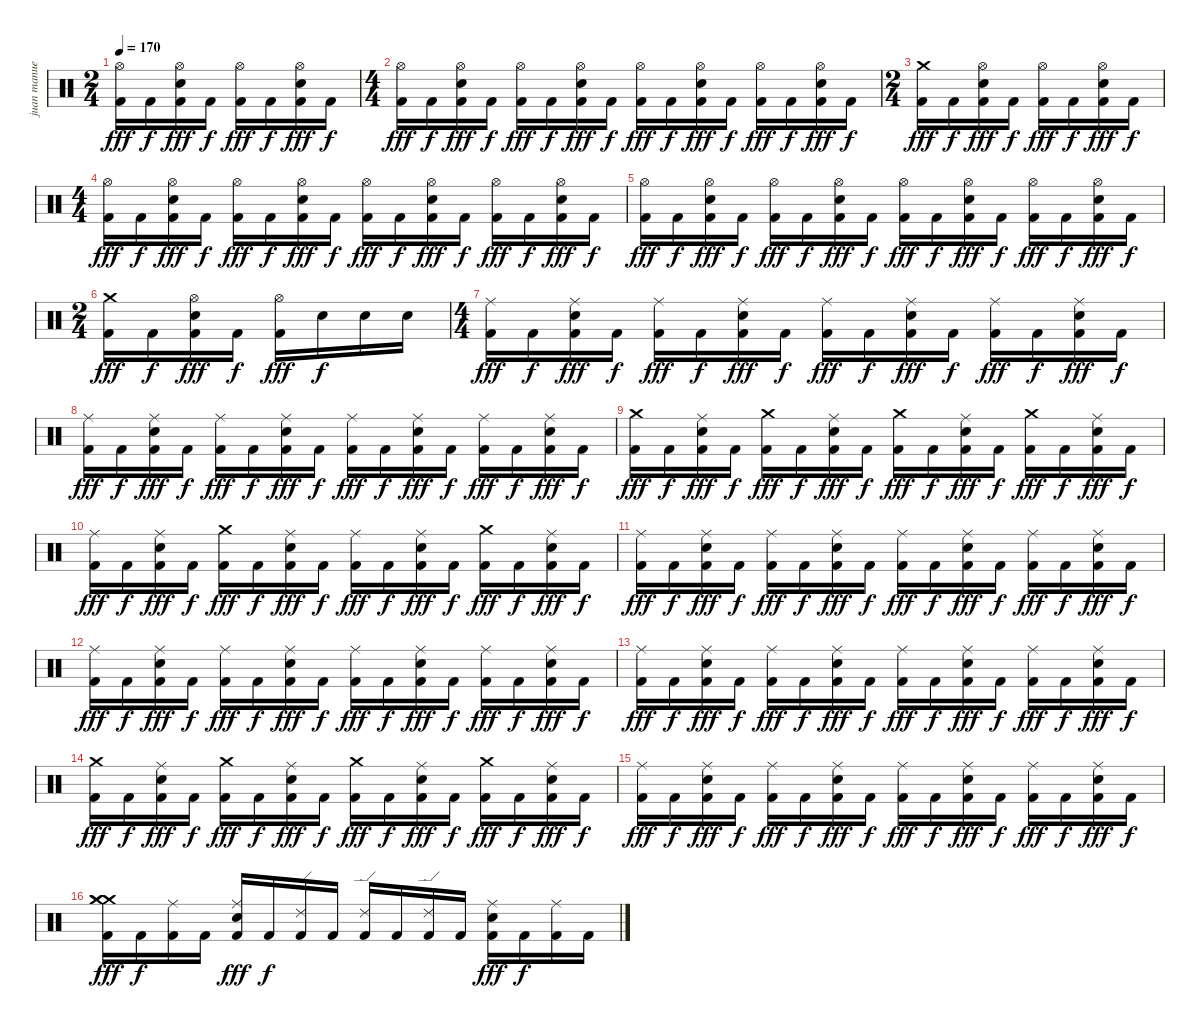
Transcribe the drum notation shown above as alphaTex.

\track ("juan manuel" "juan manue") {instrument percussion}
\staff {score}
\articulation defaults
\ts (2 4)
\tempo 170
\clef neutral
\ks c
("Hi-Hat (open)" "Kick (hit) 2").16{dy fff} "Kick (hit) 2".16{dy f} ("Hi-Hat (open)" "Electric Snare (hit)" "Kick (hit) 2").16{dy fff} "Kick (hit) 2".16{dy f} ("Hi-Hat (open)" "Kick (hit) 2").16{dy fff} "Kick (hit) 2".16{dy f} ("Hi-Hat (open)" "Electric Snare (hit)" "Kick (hit) 2").16{dy fff} "Kick (hit) 2".16{dy f} |
\ts (4 4)
("Hi-Hat (open)" "Kick (hit) 2").16{dy fff} "Kick (hit) 2".16{dy f} ("Hi-Hat (open)" "Electric Snare (hit)" "Kick (hit) 2").16{dy fff} "Kick (hit) 2".16{dy f} ("Hi-Hat (open)" "Kick (hit) 2").16{dy fff} "Kick (hit) 2".16{dy f} ("Hi-Hat (open)" "Electric Snare (hit)" "Kick (hit) 2").16{dy fff} "Kick (hit) 2".16{dy f} ("Hi-Hat (open)" "Kick (hit) 2").16{dy fff} "Kick (hit) 2".16{dy f} ("Hi-Hat (open)" "Electric Snare (hit)" "Kick (hit) 2").16{dy fff} "Kick (hit) 2".16{dy f} ("Hi-Hat (open)" "Kick (hit) 2").16{dy fff} "Kick (hit) 2".16{dy f} ("Hi-Hat (open)" "Electric Snare (hit)" "Kick (hit) 2").16{dy fff} "Kick (hit) 2".16{dy f} |
\ts (2 4)
("Crash medium (hit)" "Kick (hit) 2").16{dy fff} "Kick (hit) 2".16{dy f} ("Hi-Hat (open)" "Electric Snare (hit)" "Kick (hit) 2").16{dy fff} "Kick (hit) 2".16{dy f} ("Hi-Hat (open)" "Kick (hit) 2").16{dy fff} "Kick (hit) 2".16{dy f} ("Hi-Hat (open)" "Electric Snare (hit)" "Kick (hit) 2").16{dy fff} "Kick (hit) 2".16{dy f} |
\ts (4 4)
("Hi-Hat (open)" "Kick (hit) 2").16{dy fff} "Kick (hit) 2".16{dy f} ("Hi-Hat (open)" "Electric Snare (hit)" "Kick (hit) 2").16{dy fff} "Kick (hit) 2".16{dy f} ("Hi-Hat (open)" "Kick (hit) 2").16{dy fff} "Kick (hit) 2".16{dy f} ("Hi-Hat (open)" "Electric Snare (hit)" "Kick (hit) 2").16{dy fff} "Kick (hit) 2".16{dy f} ("Hi-Hat (open)" "Kick (hit) 2").16{dy fff} "Kick (hit) 2".16{dy f} ("Hi-Hat (open)" "Electric Snare (hit)" "Kick (hit) 2").16{dy fff} "Kick (hit) 2".16{dy f} ("Hi-Hat (open)" "Kick (hit) 2").16{dy fff} "Kick (hit) 2".16{dy f} ("Hi-Hat (open)" "Electric Snare (hit)" "Kick (hit) 2").16{dy fff} "Kick (hit) 2".16{dy f} |
("Hi-Hat (open)" "Kick (hit) 2").16{dy fff} "Kick (hit) 2".16{dy f} ("Hi-Hat (open)" "Electric Snare (hit)" "Kick (hit) 2").16{dy fff} "Kick (hit) 2".16{dy f} ("Hi-Hat (open)" "Kick (hit) 2").16{dy fff} "Kick (hit) 2".16{dy f} ("Hi-Hat (open)" "Electric Snare (hit)" "Kick (hit) 2").16{dy fff} "Kick (hit) 2".16{dy f} ("Hi-Hat (open)" "Kick (hit) 2").16{dy fff} "Kick (hit) 2".16{dy f} ("Hi-Hat (open)" "Electric Snare (hit)" "Kick (hit) 2").16{dy fff} "Kick (hit) 2".16{dy f} ("Hi-Hat (open)" "Kick (hit) 2").16{dy fff} "Kick (hit) 2".16{dy f} ("Hi-Hat (open)" "Electric Snare (hit)" "Kick (hit) 2").16{dy fff} "Kick (hit) 2".16{dy f} |
\ts (2 4)
("Crash medium (hit)" "Kick (hit) 2").16{dy fff} "Kick (hit) 2".16{dy f} ("Hi-Hat (open)" "Electric Snare (hit)" "Kick (hit) 2").16{dy fff} "Kick (hit) 2".16{dy f} ("Hi-Hat (open)" "Kick (hit) 2").16{dy fff} "Electric Snare (hit)".16{dy f} "Electric Snare (hit)".16 "Electric Snare (hit)".16 |
\ts (4 4)
("Ride (middle)" "Kick (hit) 2").16{dy fff} "Kick (hit) 2".16{dy f} ("Ride (middle)" "Electric Snare (hit)" "Kick (hit) 2").16{dy fff} "Kick (hit) 2".16{dy f} ("Ride (middle)" "Kick (hit) 2").16{dy fff} "Kick (hit) 2".16{dy f} ("Ride (middle)" "Electric Snare (hit)" "Kick (hit) 2").16{dy fff} "Kick (hit) 2".16{dy f} ("Ride (middle)" "Kick (hit) 2").16{dy fff} "Kick (hit) 2".16{dy f} ("Ride (middle)" "Electric Snare (hit)" "Kick (hit) 2").16{dy fff} "Kick (hit) 2".16{dy f} ("Ride (middle)" "Kick (hit) 2").16{dy fff} "Kick (hit) 2".16{dy f} ("Ride (middle)" "Electric Snare (hit)" "Kick (hit) 2").16{dy fff} "Kick (hit) 2".16{dy f} |
("Ride (middle)" "Kick (hit) 2").16{dy fff} "Kick (hit) 2".16{dy f} ("Ride (middle)" "Electric Snare (hit)" "Kick (hit) 2").16{dy fff} "Kick (hit) 2".16{dy f} ("Ride (middle)" "Kick (hit) 2").16{dy fff} "Kick (hit) 2".16{dy f} ("Ride (middle)" "Electric Snare (hit)" "Kick (hit) 2").16{dy fff} "Kick (hit) 2".16{dy f} ("Ride (middle)" "Kick (hit) 2").16{dy fff} "Kick (hit) 2".16{dy f} ("Ride (middle)" "Electric Snare (hit)" "Kick (hit) 2").16{dy fff} "Kick (hit) 2".16{dy f} ("Ride (middle)" "Kick (hit) 2").16{dy fff} "Kick (hit) 2".16{dy f} ("Ride (middle)" "Electric Snare (hit)" "Kick (hit) 2").16{dy fff} "Kick (hit) 2".16{dy f} |
("Crash medium (hit)" "Kick (hit) 2").16{dy fff} "Kick (hit) 2".16{dy f} ("Ride (middle)" "Electric Snare (hit)" "Kick (hit) 2").16{dy fff} "Kick (hit) 2".16{dy f} ("Crash medium (hit)" "Kick (hit) 2").16{dy fff} "Kick (hit) 2".16{dy f} ("Ride (middle)" "Electric Snare (hit)" "Kick (hit) 2").16{dy fff} "Kick (hit) 2".16{dy f} ("Crash medium (hit)" "Kick (hit) 2").16{dy fff} "Kick (hit) 2".16{dy f} ("Ride (middle)" "Electric Snare (hit)" "Kick (hit) 2").16{dy fff} "Kick (hit) 2".16{dy f} ("Crash medium (hit)" "Kick (hit) 2").16{dy fff} "Kick (hit) 2".16{dy f} ("Ride (middle)" "Electric Snare (hit)" "Kick (hit) 2").16{dy fff} "Kick (hit) 2".16{dy f} |
("Ride (middle)" "Kick (hit) 2").16{dy fff} "Kick (hit) 2".16{dy f} ("Ride (middle)" "Electric Snare (hit)" "Kick (hit) 2").16{dy fff} "Kick (hit) 2".16{dy f} ("Crash medium (hit)" "Kick (hit) 2").16{dy fff} "Kick (hit) 2".16{dy f} ("Ride (middle)" "Electric Snare (hit)" "Kick (hit) 2").16{dy fff} "Kick (hit) 2".16{dy f} ("Ride (middle)" "Kick (hit) 2").16{dy fff} "Kick (hit) 2".16{dy f} ("Ride (middle)" "Electric Snare (hit)" "Kick (hit) 2").16{dy fff} "Kick (hit) 2".16{dy f} ("Crash medium (hit)" "Kick (hit) 2").16{dy fff} "Kick (hit) 2".16{dy f} ("Ride (middle)" "Electric Snare (hit)" "Kick (hit) 2").16{dy fff} "Kick (hit) 2".16{dy f} |
("Ride (middle)" "Kick (hit) 2").16{dy fff} "Kick (hit) 2".16{dy f} ("Ride (middle)" "Electric Snare (hit)" "Kick (hit) 2").16{dy fff} "Kick (hit) 2".16{dy f} ("Ride (middle)" "Kick (hit) 2").16{dy fff} "Kick (hit) 2".16{dy f} ("Ride (middle)" "Electric Snare (hit)" "Kick (hit) 2").16{dy fff} "Kick (hit) 2".16{dy f} ("Ride (middle)" "Kick (hit) 2").16{dy fff} "Kick (hit) 2".16{dy f} ("Ride (middle)" "Electric Snare (hit)" "Kick (hit) 2").16{dy fff} "Kick (hit) 2".16{dy f} ("Ride (middle)" "Kick (hit) 2").16{dy fff} "Kick (hit) 2".16{dy f} ("Ride (middle)" "Electric Snare (hit)" "Kick (hit) 2").16{dy fff} "Kick (hit) 2".16{dy f} |
("Ride (middle)" "Kick (hit) 2").16{dy fff} "Kick (hit) 2".16{dy f} ("Ride (middle)" "Electric Snare (hit)" "Kick (hit) 2").16{dy fff} "Kick (hit) 2".16{dy f} ("Ride (middle)" "Kick (hit) 2").16{dy fff} "Kick (hit) 2".16{dy f} ("Ride (middle)" "Electric Snare (hit)" "Kick (hit) 2").16{dy fff} "Kick (hit) 2".16{dy f} ("Ride (middle)" "Kick (hit) 2").16{dy fff} "Kick (hit) 2".16{dy f} ("Ride (middle)" "Electric Snare (hit)" "Kick (hit) 2").16{dy fff} "Kick (hit) 2".16{dy f} ("Ride (middle)" "Kick (hit) 2").16{dy fff} "Kick (hit) 2".16{dy f} ("Ride (middle)" "Electric Snare (hit)" "Kick (hit) 2").16{dy fff} "Kick (hit) 2".16{dy f} |
("Ride (middle)" "Kick (hit) 2").16{dy fff} "Kick (hit) 2".16{dy f} ("Ride (middle)" "Electric Snare (hit)" "Kick (hit) 2").16{dy fff} "Kick (hit) 2".16{dy f} ("Ride (middle)" "Kick (hit) 2").16{dy fff} "Kick (hit) 2".16{dy f} ("Ride (middle)" "Electric Snare (hit)" "Kick (hit) 2").16{dy fff} "Kick (hit) 2".16{dy f} ("Ride (middle)" "Kick (hit) 2").16{dy fff} "Kick (hit) 2".16{dy f} ("Ride (middle)" "Electric Snare (hit)" "Kick (hit) 2").16{dy fff} "Kick (hit) 2".16{dy f} ("Ride (middle)" "Kick (hit) 2").16{dy fff} "Kick (hit) 2".16{dy f} ("Ride (middle)" "Electric Snare (hit)" "Kick (hit) 2").16{dy fff} "Kick (hit) 2".16{dy f} |
("Crash medium (hit)" "Kick (hit) 2").16{dy fff} "Kick (hit) 2".16{dy f} ("Ride (middle)" "Electric Snare (hit)" "Kick (hit) 2").16{dy fff} "Kick (hit) 2".16{dy f} ("Crash medium (hit)" "Kick (hit) 2").16{dy fff} "Kick (hit) 2".16{dy f} ("Ride (middle)" "Electric Snare (hit)" "Kick (hit) 2").16{dy fff} "Kick (hit) 2".16{dy f} ("Crash medium (hit)" "Kick (hit) 2").16{dy fff} "Kick (hit) 2".16{dy f} ("Ride (middle)" "Electric Snare (hit)" "Kick (hit) 2").16{dy fff} "Kick (hit) 2".16{dy f} ("Crash medium (hit)" "Kick (hit) 2").16{dy fff} "Kick (hit) 2".16{dy f} ("Ride (middle)" "Electric Snare (hit)" "Kick (hit) 2").16{dy fff} "Kick (hit) 2".16{dy f} |
("Ride (middle)" "Kick (hit) 2").16{dy fff} "Kick (hit) 2".16{dy f} ("Ride (middle)" "Electric Snare (hit)" "Kick (hit) 2").16{dy fff} "Kick (hit) 2".16{dy f} ("Ride (middle)" "Kick (hit) 2").16{dy fff} "Kick (hit) 2".16{dy f} ("Ride (middle)" "Electric Snare (hit)" "Kick (hit) 2").16{dy fff} "Kick (hit) 2".16{dy f} ("Ride (middle)" "Kick (hit) 2").16{dy fff} "Kick (hit) 2".16{dy f} ("Ride (middle)" "Electric Snare (hit)" "Kick (hit) 2").16{dy fff} "Kick (hit) 2".16{dy f} ("Ride (middle)" "Kick (hit) 2").16{dy fff} "Kick (hit) 2".16{dy f} ("Ride (middle)" "Electric Snare (hit)" "Kick (hit) 2").16{dy fff} "Kick (hit) 2".16{dy f} |
("Crash medium (hit)" "Crash medium (hit)" "Crash medium (hit)" "Kick (hit) 2").16{dy fff} "Kick (hit) 2".16{dy f} ("Ride (middle)" "Kick (hit) 2").16 "Kick (hit) 2".16 ("Ride (middle)" "Snare (hit) 2" "Kick (hit) 2").16{dy fff} "Kick (hit) 2".16{dy f} ("Ride (edge) 2" "Kick (hit) 2").16 "Kick (hit) 2".16 ("Ride (edge) 2" "Kick (hit) 2").16 "Kick (hit) 2".16 ("Ride (edge) 2" "Kick (hit) 2").16 "Kick (hit) 2".16 ("Ride (middle)" "Snare (hit) 2" "Kick (hit) 2").16{dy fff} "Kick (hit) 2".16{dy f} ("Ride (middle)" "Kick (hit) 2").16 "Kick (hit) 2".16
